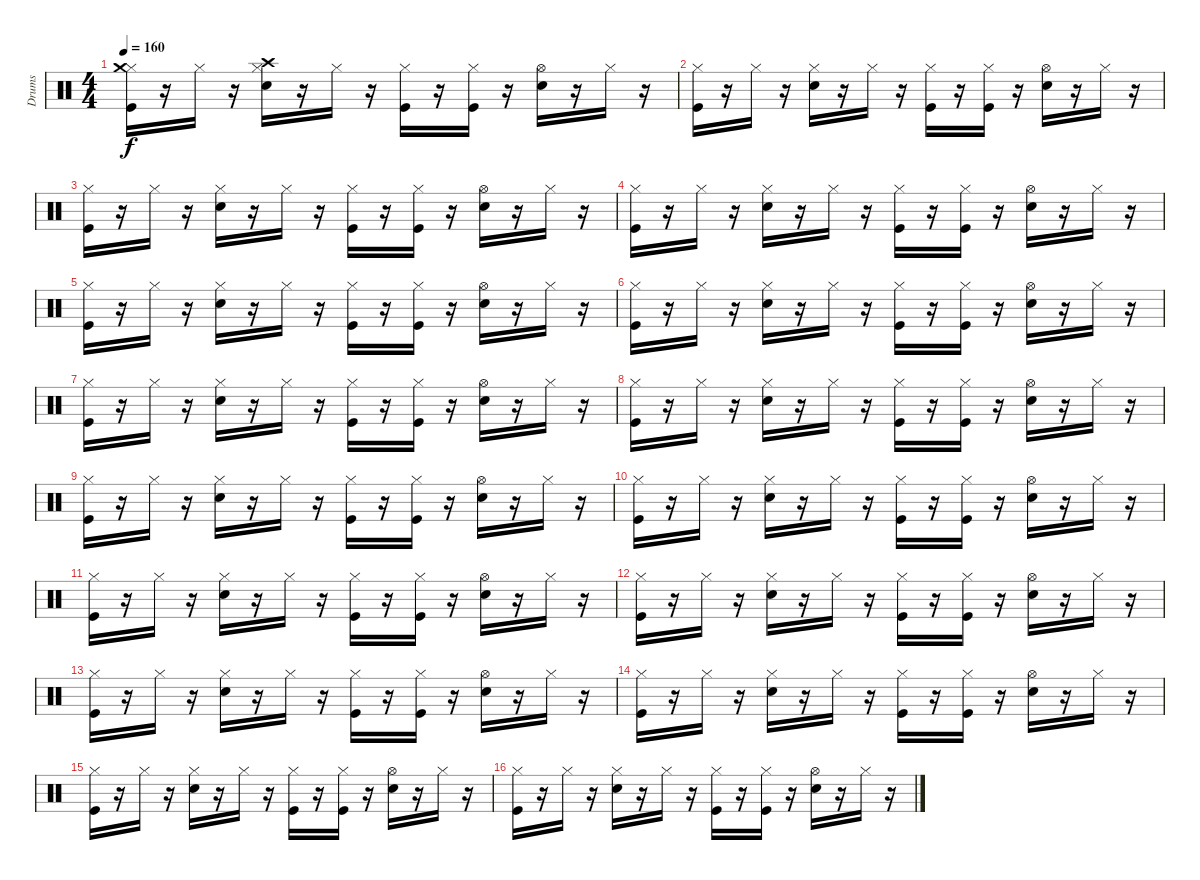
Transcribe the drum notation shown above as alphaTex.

\track ("Drums" "Drums") {instrument percussion}
\staff {score}
\articulation defaults
\ts (4 4)
\tempo 160
\clef neutral
\ks c
("Hi-Hat (closed)" "Kick (hit)" "Crash medium (hit)").16{dy f} r.16 "Hi-Hat (closed)".16 r.16 ("Hi-Hat (closed)" "Snare (hit) 2" "Crash high (hit)").16 r.16 "Hi-Hat (closed)".16 r.16 ("Hi-Hat (closed)" "Kick (hit)").16 r.16 ("Kick (hit)" "Hi-Hat (closed)").16 r.16 ("Hi-Hat (open)" "Snare (hit) 2").16 r.16 "Hi-Hat (closed)".16 r.16 |
("Hi-Hat (closed)" "Kick (hit)").16 r.16 "Hi-Hat (closed)".16 r.16 ("Hi-Hat (closed)" "Snare (hit) 2").16 r.16 "Hi-Hat (closed)".16 r.16 ("Hi-Hat (closed)" "Kick (hit)").16 r.16 ("Kick (hit)" "Hi-Hat (closed)").16 r.16 ("Hi-Hat (open)" "Snare (hit) 2").16 r.16 "Hi-Hat (closed)".16 r.16 |
("Hi-Hat (closed)" "Kick (hit)").16 r.16 "Hi-Hat (closed)".16 r.16 ("Hi-Hat (closed)" "Snare (hit) 2").16 r.16 "Hi-Hat (closed)".16 r.16 ("Hi-Hat (closed)" "Kick (hit)").16 r.16 ("Kick (hit)" "Hi-Hat (closed)").16 r.16 ("Hi-Hat (open)" "Snare (hit) 2").16 r.16 "Hi-Hat (closed)".16 r.16 |
("Hi-Hat (closed)" "Kick (hit)").16 r.16 "Hi-Hat (closed)".16 r.16 ("Hi-Hat (closed)" "Snare (hit) 2").16 r.16 "Hi-Hat (closed)".16 r.16 ("Hi-Hat (closed)" "Kick (hit)").16 r.16 ("Kick (hit)" "Hi-Hat (closed)").16 r.16 ("Hi-Hat (open)" "Snare (hit) 2").16 r.16 "Hi-Hat (closed)".16 r.16 |
("Hi-Hat (closed)" "Kick (hit)").16 r.16 "Hi-Hat (closed)".16 r.16 ("Hi-Hat (closed)" "Snare (hit) 2").16 r.16 "Hi-Hat (closed)".16 r.16 ("Hi-Hat (closed)" "Kick (hit)").16 r.16 ("Kick (hit)" "Hi-Hat (closed)").16 r.16 ("Hi-Hat (open)" "Snare (hit) 2").16 r.16 "Hi-Hat (closed)".16 r.16 |
("Hi-Hat (closed)" "Kick (hit)").16 r.16 "Hi-Hat (closed)".16 r.16 ("Hi-Hat (closed)" "Snare (hit) 2").16 r.16 "Hi-Hat (closed)".16 r.16 ("Hi-Hat (closed)" "Kick (hit)").16 r.16 ("Kick (hit)" "Hi-Hat (closed)").16 r.16 ("Hi-Hat (open)" "Snare (hit) 2").16 r.16 "Hi-Hat (closed)".16 r.16 |
("Hi-Hat (closed)" "Kick (hit)").16 r.16 "Hi-Hat (closed)".16 r.16 ("Hi-Hat (closed)" "Snare (hit) 2").16 r.16 "Hi-Hat (closed)".16 r.16 ("Hi-Hat (closed)" "Kick (hit)").16 r.16 ("Kick (hit)" "Hi-Hat (closed)").16 r.16 ("Hi-Hat (open)" "Snare (hit) 2").16 r.16 "Hi-Hat (closed)".16 r.16 |
("Hi-Hat (closed)" "Kick (hit)").16 r.16 "Hi-Hat (closed)".16 r.16 ("Hi-Hat (closed)" "Snare (hit) 2").16 r.16 "Hi-Hat (closed)".16 r.16 ("Hi-Hat (closed)" "Kick (hit)").16 r.16 ("Kick (hit)" "Hi-Hat (closed)").16 r.16 ("Hi-Hat (open)" "Snare (hit) 2").16 r.16 "Hi-Hat (closed)".16 r.16 |
("Hi-Hat (closed)" "Kick (hit)").16 r.16 "Hi-Hat (closed)".16 r.16 ("Hi-Hat (closed)" "Snare (hit) 2").16 r.16 "Hi-Hat (closed)".16 r.16 ("Hi-Hat (closed)" "Kick (hit)").16 r.16 ("Kick (hit)" "Hi-Hat (closed)").16 r.16 ("Hi-Hat (open)" "Snare (hit) 2").16 r.16 "Hi-Hat (closed)".16 r.16 |
("Hi-Hat (closed)" "Kick (hit)").16 r.16 "Hi-Hat (closed)".16 r.16 ("Hi-Hat (closed)" "Snare (hit) 2").16 r.16 "Hi-Hat (closed)".16 r.16 ("Hi-Hat (closed)" "Kick (hit)").16 r.16 ("Kick (hit)" "Hi-Hat (closed)").16 r.16 ("Hi-Hat (open)" "Snare (hit) 2").16 r.16 "Hi-Hat (closed)".16 r.16 |
("Hi-Hat (closed)" "Kick (hit)").16 r.16 "Hi-Hat (closed)".16 r.16 ("Hi-Hat (closed)" "Snare (hit) 2").16 r.16 "Hi-Hat (closed)".16 r.16 ("Hi-Hat (closed)" "Kick (hit)").16 r.16 ("Kick (hit)" "Hi-Hat (closed)").16 r.16 ("Hi-Hat (open)" "Snare (hit) 2").16 r.16 "Hi-Hat (closed)".16 r.16 |
("Hi-Hat (closed)" "Kick (hit)").16 r.16 "Hi-Hat (closed)".16 r.16 ("Hi-Hat (closed)" "Snare (hit) 2").16 r.16 "Hi-Hat (closed)".16 r.16 ("Hi-Hat (closed)" "Kick (hit)").16 r.16 ("Kick (hit)" "Hi-Hat (closed)").16 r.16 ("Hi-Hat (open)" "Snare (hit) 2").16 r.16 "Hi-Hat (closed)".16 r.16 |
("Hi-Hat (closed)" "Kick (hit)").16 r.16 "Hi-Hat (closed)".16 r.16 ("Hi-Hat (closed)" "Snare (hit) 2").16 r.16 "Hi-Hat (closed)".16 r.16 ("Hi-Hat (closed)" "Kick (hit)").16 r.16 ("Kick (hit)" "Hi-Hat (closed)").16 r.16 ("Hi-Hat (open)" "Snare (hit) 2").16 r.16 "Hi-Hat (closed)".16 r.16 |
("Hi-Hat (closed)" "Kick (hit)").16 r.16 "Hi-Hat (closed)".16 r.16 ("Hi-Hat (closed)" "Snare (hit) 2").16 r.16 "Hi-Hat (closed)".16 r.16 ("Hi-Hat (closed)" "Kick (hit)").16 r.16 ("Kick (hit)" "Hi-Hat (closed)").16 r.16 ("Hi-Hat (open)" "Snare (hit) 2").16 r.16 "Hi-Hat (closed)".16 r.16 |
("Hi-Hat (closed)" "Kick (hit)").16 r.16 "Hi-Hat (closed)".16 r.16 ("Hi-Hat (closed)" "Snare (hit) 2").16 r.16 "Hi-Hat (closed)".16 r.16 ("Hi-Hat (closed)" "Kick (hit)").16 r.16 ("Kick (hit)" "Hi-Hat (closed)").16 r.16 ("Hi-Hat (open)" "Snare (hit) 2").16 r.16 "Hi-Hat (closed)".16 r.16 |
("Hi-Hat (closed)" "Kick (hit)").16 r.16 "Hi-Hat (closed)".16 r.16 ("Hi-Hat (closed)" "Snare (hit) 2").16 r.16 "Hi-Hat (closed)".16 r.16 ("Hi-Hat (closed)" "Kick (hit)").16 r.16 ("Kick (hit)" "Hi-Hat (closed)").16 r.16 ("Hi-Hat (open)" "Snare (hit) 2").16 r.16 "Hi-Hat (closed)".16 r.16
